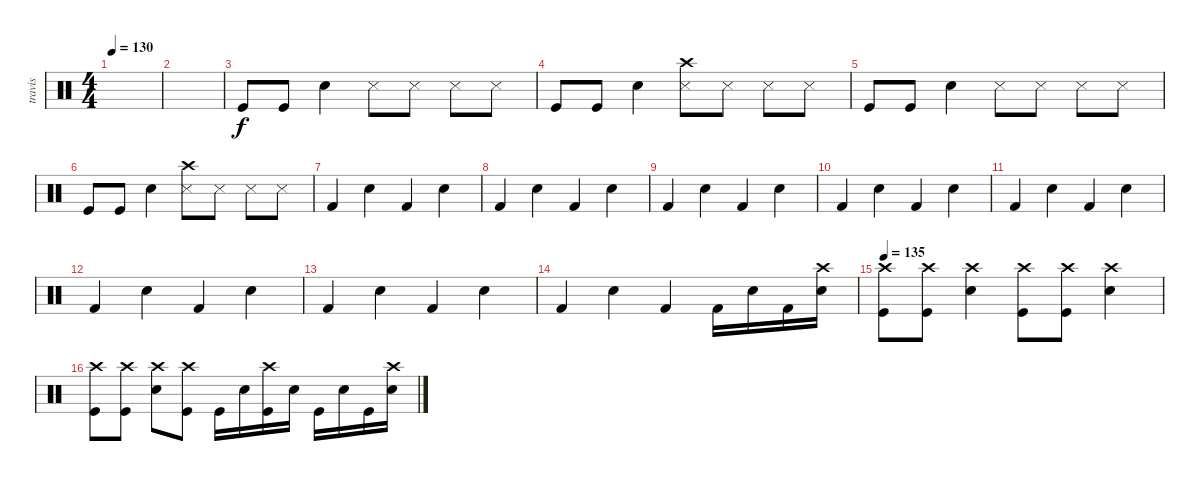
\track ("travis" "travis") {instrument percussion}
\staff {score}
\articulation defaults
\ts (4 4)
\tempo 130
\clef neutral
\ks c
|
|
"Kick (hit)".8 "Kick (hit)".8 "Electric Snare (hit)".4 "Snare (side stick) 3".8 "Snare (side stick) 3".8 "Snare (side stick) 3".8 "Snare (side stick) 3".8 |
"Kick (hit)".8 "Kick (hit)".8 "Electric Snare (hit)".4 ("Crash high (hit)" "Snare (side stick) 3").8 "Snare (side stick) 3".8 "Snare (side stick) 3".8 "Snare (side stick) 3".8 |
"Kick (hit)".8 "Kick (hit)".8 "Electric Snare (hit)".4 "Snare (side stick) 3".8 "Snare (side stick) 3".8 "Snare (side stick) 3".8 "Snare (side stick) 3".8 |
"Kick (hit)".8 "Kick (hit)".8 "Electric Snare (hit)".4 ("Crash high (hit)" "Snare (side stick) 3").8 "Snare (side stick) 3".8 "Snare (side stick) 3".8 "Snare (side stick) 3".8 |
"Kick (hit) 2".4 "Electric Snare (hit)".4 "Kick (hit) 2".4 "Electric Snare (hit)".4 |
"Kick (hit) 2".4 "Electric Snare (hit)".4 "Kick (hit) 2".4 "Electric Snare (hit)".4 |
"Kick (hit) 2".4 "Electric Snare (hit)".4 "Kick (hit) 2".4 "Electric Snare (hit)".4 |
"Kick (hit) 2".4 "Electric Snare (hit)".4 "Kick (hit) 2".4 "Electric Snare (hit)".4 |
"Kick (hit) 2".4 "Electric Snare (hit)".4 "Kick (hit) 2".4 "Electric Snare (hit)".4 |
"Kick (hit) 2".4 "Electric Snare (hit)".4 "Kick (hit) 2".4 "Electric Snare (hit)".4 |
"Kick (hit) 2".4 "Electric Snare (hit)".4 "Kick (hit) 2".4 "Electric Snare (hit)".4 |
"Kick (hit) 2".4 "Electric Snare (hit)".4 "Kick (hit) 2".4 "Kick (hit) 2".16 "Electric Snare (hit)".16 "Kick (hit) 2".16 ("Crash high (hit)" "Electric Snare (hit)").16 |
\tempo 135
("Crash high (hit)" "Kick (hit)").8 ("Crash high (hit)" "Kick (hit)").8 ("Crash high (hit)" "Electric Snare (hit)").4 ("Crash high (hit)" "Kick (hit)").8 ("Crash high (hit)" "Kick (hit)").8 ("Crash high (hit)" "Electric Snare (hit)").4 |
("Crash high (hit)" "Kick (hit)").8 ("Crash high (hit)" "Kick (hit)").8 ("Crash high (hit)" "Electric Snare (hit)").8 ("Crash high (hit)" "Kick (hit)").8 "Kick (hit)".16 "Electric Snare (hit)".16 ("Crash high (hit)" "Kick (hit)").16 "Electric Snare (hit)".16 "Kick (hit)".16 "Electric Snare (hit)".16 "Kick (hit)".16 ("Crash high (hit)" "Electric Snare (hit)").16
